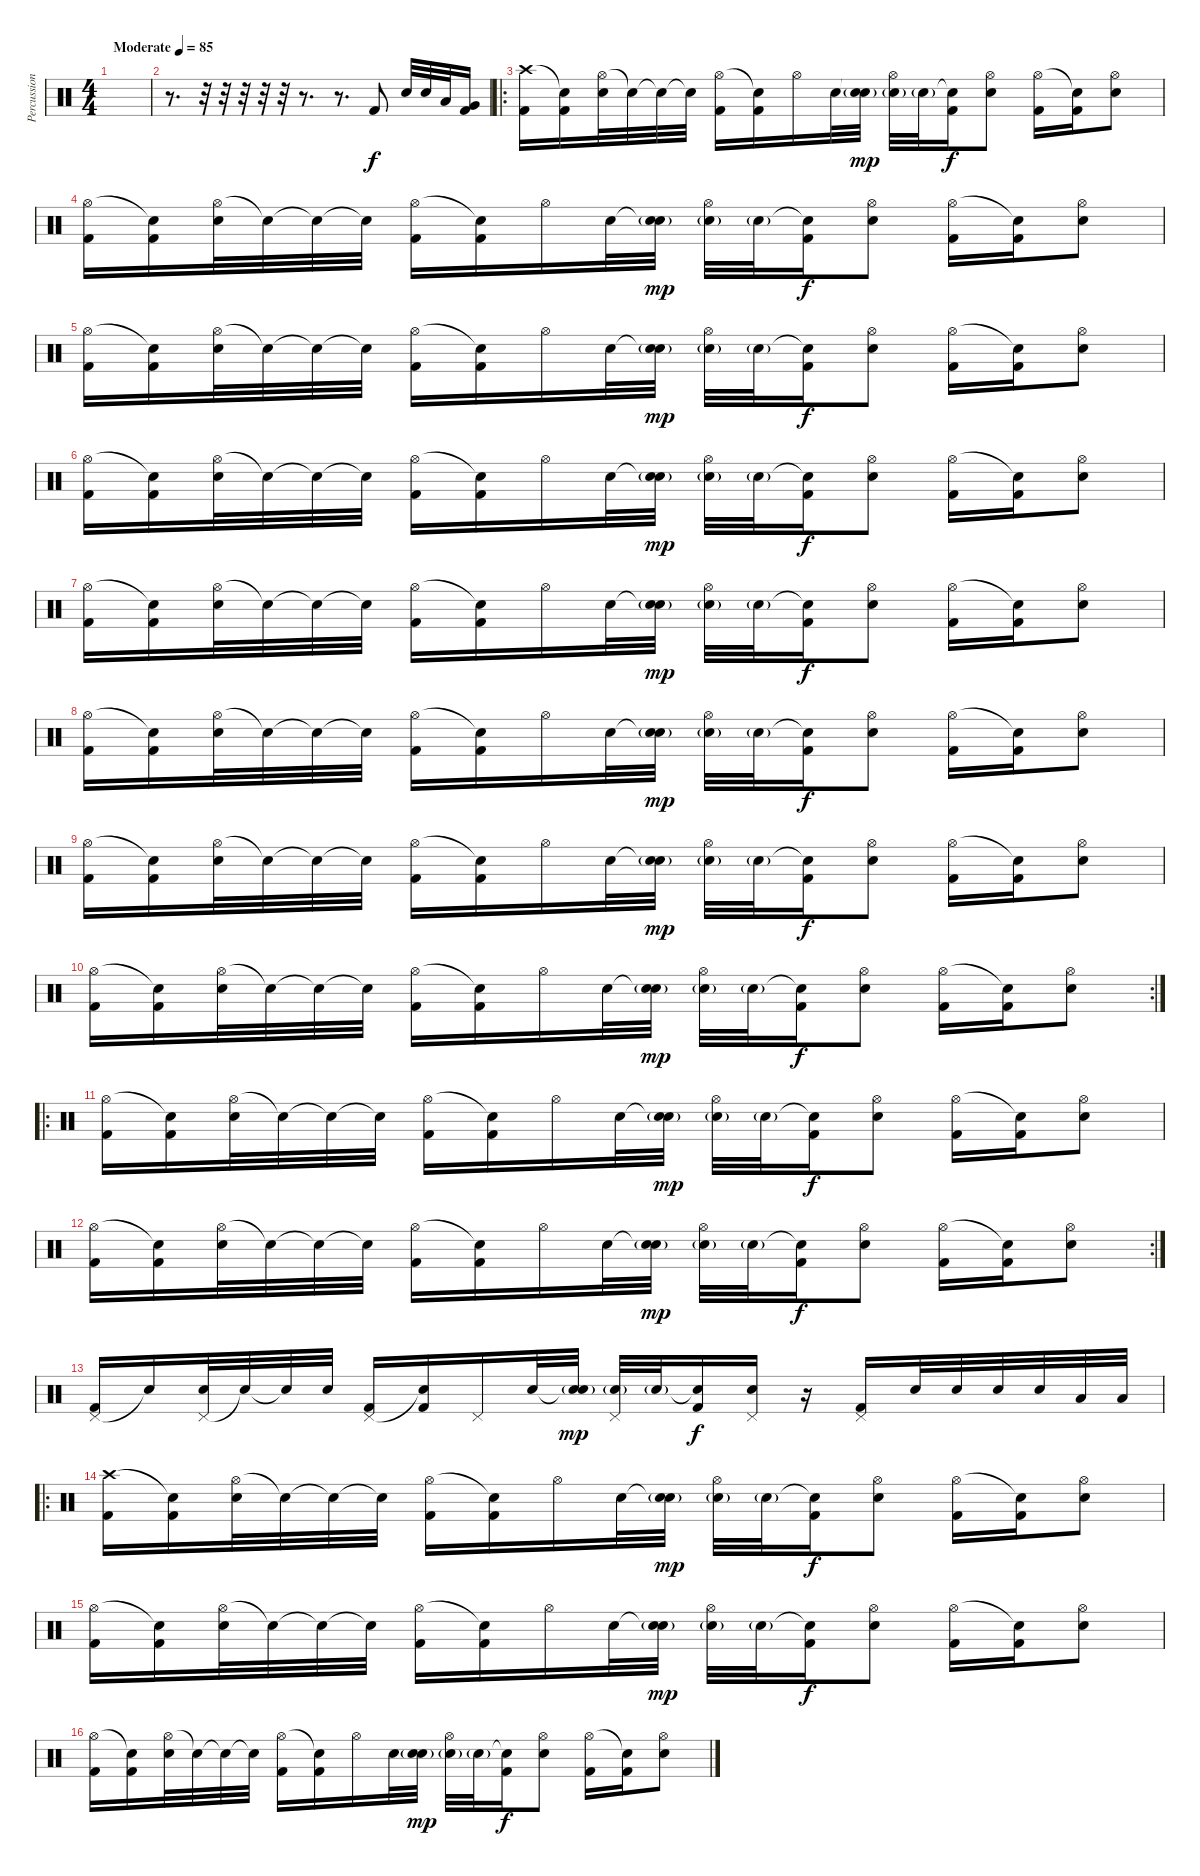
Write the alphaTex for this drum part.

\track ("Percussion" "Percussion") {instrument percussion}
\staff {score}
\articulation defaults
\ts (4 4)
\tempo (85 "Moderate")
\clef neutral
\ks c
|
r.8{d} r.32 r.32 r.32 r.32 r.32 r.8{d} r.8{d} "Kick (hit) 2".8 "Electric Snare (hit)".32 "Electric Snare (hit)".32 "Low Tom (hit)".32 ("Very Low Tom (hit)" "Kick (hit) 2").16 |
\ro
("Crash high (hit)" "Kick (hit) 2").16 ("Snare (hit)"{t} "Kick (hit) 2").16 ("Hi-Hat (open)" "Electric Snare (hit)").32 "Snare (hit)"{t}.32 "Snare (hit)"{t}.32 "Snare (hit)"{t}.32 ("Hi-Hat (open)" "Kick (hit) 2").16 ("Snare (hit)"{t} "Kick (hit) 2").16 "Hi-Hat (open)".16 "Electric Snare (hit)".32 ("Snare (hit)"{t} "Electric Snare (hit)"{g}).32{dy mp} ("Hi-Hat (open)" "Electric Snare (hit)"{g}).32 "Electric Snare (hit)"{g}.32 ("Snare (hit)"{t} "Kick (hit) 2").16{dy f} ("Hi-Hat (open)" "Electric Snare (hit)").8 ("Hi-Hat (open)" "Kick (hit) 2").16 ("Snare (hit)"{t} "Kick (hit) 2").16 ("Hi-Hat (open)" "Electric Snare (hit)").8 |
("Hi-Hat (open)" "Kick (hit) 2").16 ("Snare (hit)"{t} "Kick (hit) 2").16 ("Hi-Hat (open)" "Electric Snare (hit)").32 "Snare (hit)"{t}.32 "Snare (hit)"{t}.32 "Snare (hit)"{t}.32 ("Hi-Hat (open)" "Kick (hit) 2").16 ("Snare (hit)"{t} "Kick (hit) 2").16 "Hi-Hat (open)".16 "Electric Snare (hit)".32 ("Snare (hit)"{t} "Electric Snare (hit)"{g}).32{dy mp} ("Hi-Hat (open)" "Electric Snare (hit)"{g}).32 "Electric Snare (hit)"{g}.32 ("Snare (hit)"{t} "Kick (hit) 2").16{dy f} ("Hi-Hat (open)" "Electric Snare (hit)").8 ("Hi-Hat (open)" "Kick (hit) 2").16 ("Snare (hit)"{t} "Kick (hit) 2").16 ("Hi-Hat (open)" "Electric Snare (hit)").8 |
("Hi-Hat (open)" "Kick (hit) 2").16 ("Snare (hit)"{t} "Kick (hit) 2").16 ("Hi-Hat (open)" "Electric Snare (hit)").32 "Snare (hit)"{t}.32 "Snare (hit)"{t}.32 "Snare (hit)"{t}.32 ("Hi-Hat (open)" "Kick (hit) 2").16 ("Snare (hit)"{t} "Kick (hit) 2").16 "Hi-Hat (open)".16 "Electric Snare (hit)".32 ("Snare (hit)"{t} "Electric Snare (hit)"{g}).32{dy mp} ("Hi-Hat (open)" "Electric Snare (hit)"{g}).32 "Electric Snare (hit)"{g}.32 ("Snare (hit)"{t} "Kick (hit) 2").16{dy f} ("Hi-Hat (open)" "Electric Snare (hit)").8 ("Hi-Hat (open)" "Kick (hit) 2").16 ("Snare (hit)"{t} "Kick (hit) 2").16 ("Hi-Hat (open)" "Electric Snare (hit)").8 |
("Hi-Hat (open)" "Kick (hit) 2").16 ("Snare (hit)"{t} "Kick (hit) 2").16 ("Hi-Hat (open)" "Electric Snare (hit)").32 "Snare (hit)"{t}.32 "Snare (hit)"{t}.32 "Snare (hit)"{t}.32 ("Hi-Hat (open)" "Kick (hit) 2").16 ("Snare (hit)"{t} "Kick (hit) 2").16 "Hi-Hat (open)".16 "Electric Snare (hit)".32 ("Snare (hit)"{t} "Electric Snare (hit)"{g}).32{dy mp} ("Hi-Hat (open)" "Electric Snare (hit)"{g}).32 "Electric Snare (hit)"{g}.32 ("Snare (hit)"{t} "Kick (hit) 2").16{dy f} ("Hi-Hat (open)" "Electric Snare (hit)").8 ("Hi-Hat (open)" "Kick (hit) 2").16 ("Snare (hit)"{t} "Kick (hit) 2").16 ("Hi-Hat (open)" "Electric Snare (hit)").8 |
("Hi-Hat (open)" "Kick (hit) 2").16 ("Snare (hit)"{t} "Kick (hit) 2").16 ("Hi-Hat (open)" "Electric Snare (hit)").32 "Snare (hit)"{t}.32 "Snare (hit)"{t}.32 "Snare (hit)"{t}.32 ("Hi-Hat (open)" "Kick (hit) 2").16 ("Snare (hit)"{t} "Kick (hit) 2").16 "Hi-Hat (open)".16 "Electric Snare (hit)".32 ("Snare (hit)"{t} "Electric Snare (hit)"{g}).32{dy mp} ("Hi-Hat (open)" "Electric Snare (hit)"{g}).32 "Electric Snare (hit)"{g}.32 ("Snare (hit)"{t} "Kick (hit) 2").16{dy f} ("Hi-Hat (open)" "Electric Snare (hit)").8 ("Hi-Hat (open)" "Kick (hit) 2").16 ("Snare (hit)"{t} "Kick (hit) 2").16 ("Hi-Hat (open)" "Electric Snare (hit)").8 |
("Hi-Hat (open)" "Kick (hit) 2").16 ("Snare (hit)"{t} "Kick (hit) 2").16 ("Hi-Hat (open)" "Electric Snare (hit)").32 "Snare (hit)"{t}.32 "Snare (hit)"{t}.32 "Snare (hit)"{t}.32 ("Hi-Hat (open)" "Kick (hit) 2").16 ("Snare (hit)"{t} "Kick (hit) 2").16 "Hi-Hat (open)".16 "Electric Snare (hit)".32 ("Snare (hit)"{t} "Electric Snare (hit)"{g}).32{dy mp} ("Hi-Hat (open)" "Electric Snare (hit)"{g}).32 "Electric Snare (hit)"{g}.32 ("Snare (hit)"{t} "Kick (hit) 2").16{dy f} ("Hi-Hat (open)" "Electric Snare (hit)").8 ("Hi-Hat (open)" "Kick (hit) 2").16 ("Snare (hit)"{t} "Kick (hit) 2").16 ("Hi-Hat (open)" "Electric Snare (hit)").8 |
("Hi-Hat (open)" "Kick (hit) 2").16 ("Snare (hit)"{t} "Kick (hit) 2").16 ("Hi-Hat (open)" "Electric Snare (hit)").32 "Snare (hit)"{t}.32 "Snare (hit)"{t}.32 "Snare (hit)"{t}.32 ("Hi-Hat (open)" "Kick (hit) 2").16 ("Snare (hit)"{t} "Kick (hit) 2").16 "Hi-Hat (open)".16 "Electric Snare (hit)".32 ("Snare (hit)"{t} "Electric Snare (hit)"{g}).32{dy mp} ("Hi-Hat (open)" "Electric Snare (hit)"{g}).32 "Electric Snare (hit)"{g}.32 ("Snare (hit)"{t} "Kick (hit) 2").16{dy f} ("Hi-Hat (open)" "Electric Snare (hit)").8 ("Hi-Hat (open)" "Kick (hit) 2").16 ("Snare (hit)"{t} "Kick (hit) 2").16 ("Hi-Hat (open)" "Electric Snare (hit)").8 |
\rc 2
("Hi-Hat (open)" "Kick (hit) 2").16 ("Snare (hit)"{t} "Kick (hit) 2").16 ("Hi-Hat (open)" "Electric Snare (hit)").32 "Snare (hit)"{t}.32 "Snare (hit)"{t}.32 "Snare (hit)"{t}.32 ("Hi-Hat (open)" "Kick (hit) 2").16 ("Snare (hit)"{t} "Kick (hit) 2").16 "Hi-Hat (open)".16 "Electric Snare (hit)".32 ("Snare (hit)"{t} "Electric Snare (hit)"{g}).32{dy mp} ("Hi-Hat (open)" "Electric Snare (hit)"{g}).32 "Electric Snare (hit)"{g}.32 ("Snare (hit)"{t} "Kick (hit) 2").16{dy f} ("Hi-Hat (open)" "Electric Snare (hit)").8 ("Hi-Hat (open)" "Kick (hit) 2").16 ("Snare (hit)"{t} "Kick (hit) 2").16 ("Hi-Hat (open)" "Electric Snare (hit)").8 |
\ro
("Hi-Hat (open)" "Kick (hit) 2").16 ("Snare (hit)"{t} "Kick (hit) 2").16 ("Hi-Hat (open)" "Electric Snare (hit)").32 "Snare (hit)"{t}.32 "Snare (hit)"{t}.32 "Snare (hit)"{t}.32 ("Hi-Hat (open)" "Kick (hit) 2").16 ("Snare (hit)"{t} "Kick (hit) 2").16 "Hi-Hat (open)".16 "Electric Snare (hit)".32 ("Snare (hit)"{t} "Electric Snare (hit)"{g}).32{dy mp} ("Hi-Hat (open)" "Electric Snare (hit)"{g}).32 "Electric Snare (hit)"{g}.32 ("Snare (hit)"{t} "Kick (hit) 2").16{dy f} ("Hi-Hat (open)" "Electric Snare (hit)").8 ("Hi-Hat (open)" "Kick (hit) 2").16 ("Snare (hit)"{t} "Kick (hit) 2").16 ("Hi-Hat (open)" "Electric Snare (hit)").8 |
\rc 2
("Hi-Hat (open)" "Kick (hit) 2").16 ("Snare (hit)"{t} "Kick (hit) 2").16 ("Hi-Hat (open)" "Electric Snare (hit)").32 "Snare (hit)"{t}.32 "Snare (hit)"{t}.32 "Snare (hit)"{t}.32 ("Hi-Hat (open)" "Kick (hit) 2").16 ("Snare (hit)"{t} "Kick (hit) 2").16 "Hi-Hat (open)".16 "Electric Snare (hit)".32 ("Snare (hit)"{t} "Electric Snare (hit)"{g}).32{dy mp} ("Hi-Hat (open)" "Electric Snare (hit)"{g}).32 "Electric Snare (hit)"{g}.32 ("Snare (hit)"{t} "Kick (hit) 2").16{dy f} ("Hi-Hat (open)" "Electric Snare (hit)").8 ("Hi-Hat (open)" "Kick (hit) 2").16 ("Snare (hit)"{t} "Kick (hit) 2").16 ("Hi-Hat (open)" "Electric Snare (hit)").8 |
("Pedal Hi-Hat (hit)" "Kick (hit) 2").16 "Snare (hit)"{t}.16 ("Pedal Hi-Hat (hit)" "Electric Snare (hit)").32 "Snare (hit)"{t}.32 "Snare (hit)"{t}.32 "Snare (hit)".32 ("Pedal Hi-Hat (hit)" "Kick (hit) 2").16 ("Snare (hit)"{t} "Kick (hit) 2").16 "Pedal Hi-Hat (hit)".16 "Electric Snare (hit)".32 ("Snare (hit)"{t} "Electric Snare (hit)"{g}).32{dy mp} ("Pedal Hi-Hat (hit)" "Electric Snare (hit)"{g}).32 "Electric Snare (hit)"{g}.32 ("Snare (hit)"{t} "Kick (hit) 2").16{dy f} ("Pedal Hi-Hat (hit)" "Electric Snare (hit)").16 r.16 ("Pedal Hi-Hat (hit)" "Kick (hit) 2").16 "Electric Snare (hit)".32 "Electric Snare (hit)".32 "Electric Snare (hit)".32 "Electric Snare (hit)".32 "Low Tom (hit)".32 "Low Tom (hit)".32 |
\ro
("Crash high (hit)" "Kick (hit) 2").16 ("Snare (hit)"{t} "Kick (hit) 2").16 ("Hi-Hat (open)" "Electric Snare (hit)").32 "Snare (hit)"{t}.32 "Snare (hit)"{t}.32 "Snare (hit)"{t}.32 ("Hi-Hat (open)" "Kick (hit) 2").16 ("Snare (hit)"{t} "Kick (hit) 2").16 "Hi-Hat (open)".16 "Electric Snare (hit)".32 ("Snare (hit)"{t} "Electric Snare (hit)"{g}).32{dy mp} ("Hi-Hat (open)" "Electric Snare (hit)"{g}).32 "Electric Snare (hit)"{g}.32 ("Snare (hit)"{t} "Kick (hit) 2").16{dy f} ("Hi-Hat (open)" "Electric Snare (hit)").8 ("Hi-Hat (open)" "Kick (hit) 2").16 ("Snare (hit)"{t} "Kick (hit) 2").16 ("Hi-Hat (open)" "Electric Snare (hit)").8 |
("Hi-Hat (open)" "Kick (hit) 2").16 ("Snare (hit)"{t} "Kick (hit) 2").16 ("Hi-Hat (open)" "Electric Snare (hit)").32 "Snare (hit)"{t}.32 "Snare (hit)"{t}.32 "Snare (hit)"{t}.32 ("Hi-Hat (open)" "Kick (hit) 2").16 ("Snare (hit)"{t} "Kick (hit) 2").16 "Hi-Hat (open)".16 "Electric Snare (hit)".32 ("Snare (hit)"{t} "Electric Snare (hit)"{g}).32{dy mp} ("Hi-Hat (open)" "Electric Snare (hit)"{g}).32 "Electric Snare (hit)"{g}.32 ("Snare (hit)"{t} "Kick (hit) 2").16{dy f} ("Hi-Hat (open)" "Electric Snare (hit)").8 ("Hi-Hat (open)" "Kick (hit) 2").16 ("Snare (hit)"{t} "Kick (hit) 2").16 ("Hi-Hat (open)" "Electric Snare (hit)").8 |
("Hi-Hat (open)" "Kick (hit) 2").16 ("Snare (hit)"{t} "Kick (hit) 2").16 ("Hi-Hat (open)" "Electric Snare (hit)").32 "Snare (hit)"{t}.32 "Snare (hit)"{t}.32 "Snare (hit)"{t}.32 ("Hi-Hat (open)" "Kick (hit) 2").16 ("Snare (hit)"{t} "Kick (hit) 2").16 "Hi-Hat (open)".16 "Electric Snare (hit)".32 ("Snare (hit)"{t} "Electric Snare (hit)"{g}).32{dy mp} ("Hi-Hat (open)" "Electric Snare (hit)"{g}).32 "Electric Snare (hit)"{g}.32 ("Snare (hit)"{t} "Kick (hit) 2").16{dy f} ("Hi-Hat (open)" "Electric Snare (hit)").8 ("Hi-Hat (open)" "Kick (hit) 2").16 ("Snare (hit)"{t} "Kick (hit) 2").16 ("Hi-Hat (open)" "Electric Snare (hit)").8
